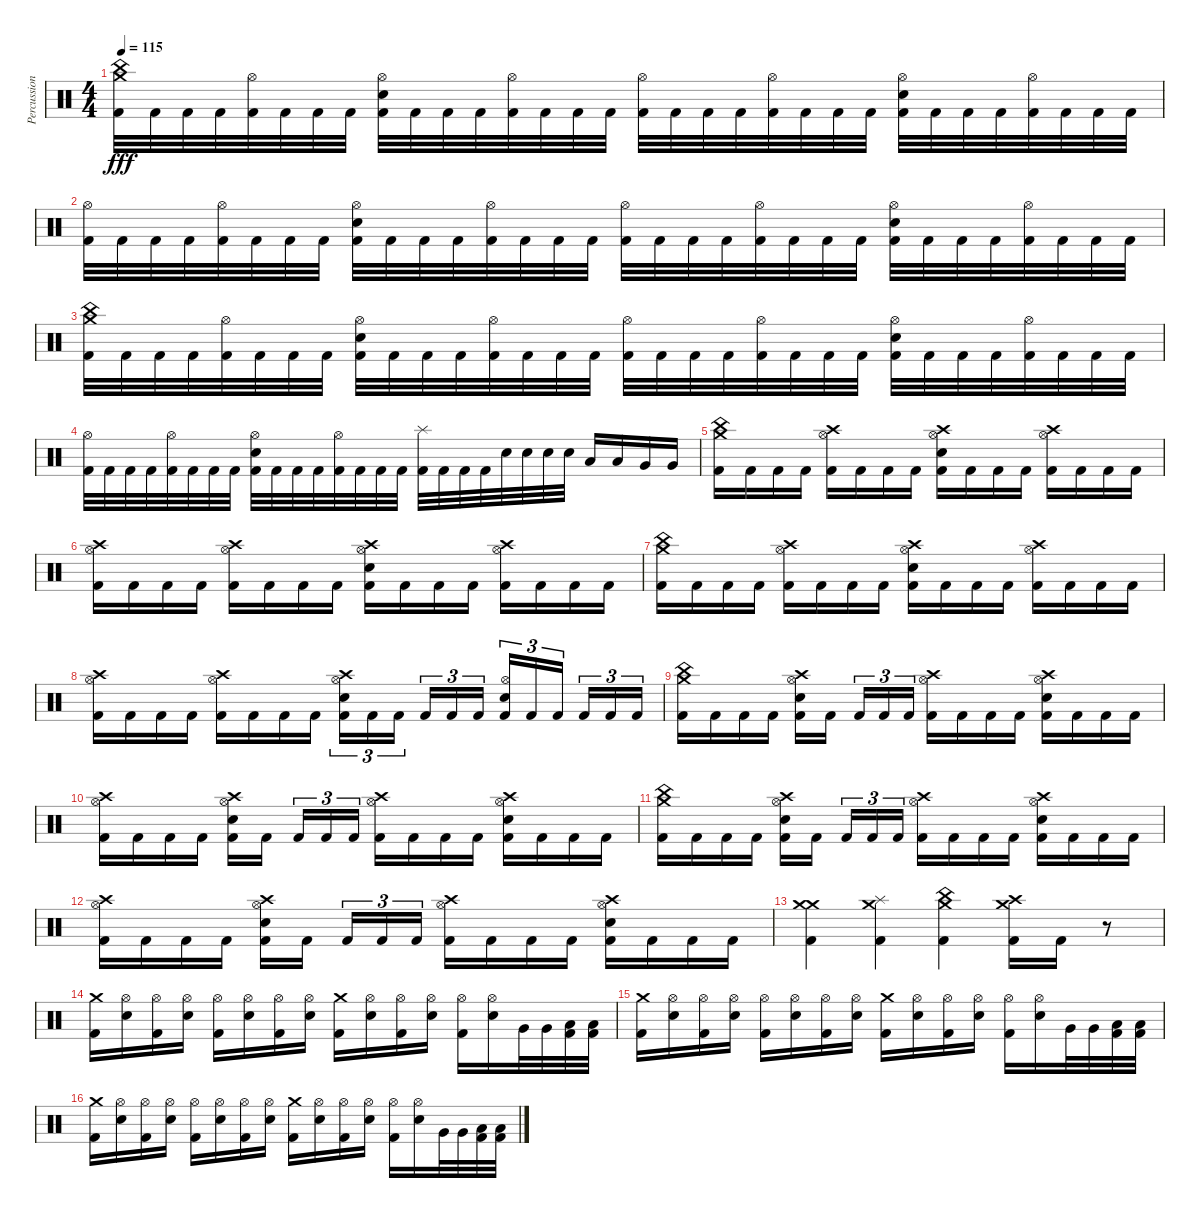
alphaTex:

\track ("Percussion" "Percussion") {instrument percussion}
\staff
\articulation defaults
\ts (4 4)
\tempo 115
\clef neutral
\ks c
("China (hit)" "Crash medium (hit)" "Kick (hit) 2").32{dy fff} "Kick (hit) 2".32 "Kick (hit) 2".32 "Kick (hit) 2".32 ("Hi-Hat (open)" "Kick (hit) 2").32 "Kick (hit) 2".32 "Kick (hit) 2".32 "Kick (hit) 2".32 ("Hi-Hat (open)" "Snare (hit) 2" "Kick (hit) 2").32 "Kick (hit) 2".32 "Kick (hit) 2".32 "Kick (hit) 2".32 ("Hi-Hat (open)" "Kick (hit) 2").32 "Kick (hit) 2".32 "Kick (hit) 2".32 "Kick (hit) 2".32 ("Hi-Hat (open)" "Kick (hit) 2").32 "Kick (hit) 2".32 "Kick (hit) 2".32 "Kick (hit) 2".32 ("Hi-Hat (open)" "Kick (hit) 2").32 "Kick (hit) 2".32 "Kick (hit) 2".32 "Kick (hit) 2".32 ("Hi-Hat (open)" "Snare (hit) 2" "Kick (hit) 2").32 "Kick (hit) 2".32 "Kick (hit) 2".32 "Kick (hit) 2".32 ("Hi-Hat (open)" "Kick (hit) 2").32 "Kick (hit) 2".32 "Kick (hit) 2".32 "Kick (hit) 2".32 |
("Hi-Hat (open)" "Kick (hit) 2").32 "Kick (hit) 2".32 "Kick (hit) 2".32 "Kick (hit) 2".32 ("Hi-Hat (open)" "Kick (hit) 2").32 "Kick (hit) 2".32 "Kick (hit) 2".32 "Kick (hit) 2".32 ("Hi-Hat (open)" "Snare (hit) 2" "Kick (hit) 2").32 "Kick (hit) 2".32 "Kick (hit) 2".32 "Kick (hit) 2".32 ("Hi-Hat (open)" "Kick (hit) 2").32 "Kick (hit) 2".32 "Kick (hit) 2".32 "Kick (hit) 2".32 ("Hi-Hat (open)" "Kick (hit) 2").32 "Kick (hit) 2".32 "Kick (hit) 2".32 "Kick (hit) 2".32 ("Hi-Hat (open)" "Kick (hit) 2").32 "Kick (hit) 2".32 "Kick (hit) 2".32 "Kick (hit) 2".32 ("Hi-Hat (open)" "Snare (hit) 2" "Kick (hit) 2").32 "Kick (hit) 2".32 "Kick (hit) 2".32 "Kick (hit) 2".32 ("Hi-Hat (open)" "Kick (hit) 2").32 "Kick (hit) 2".32 "Kick (hit) 2".32 "Kick (hit) 2".32 |
("China (hit)" "Crash medium (hit)" "Kick (hit) 2").32 "Kick (hit) 2".32 "Kick (hit) 2".32 "Kick (hit) 2".32 ("Hi-Hat (open)" "Kick (hit) 2").32 "Kick (hit) 2".32 "Kick (hit) 2".32 "Kick (hit) 2".32 ("Hi-Hat (open)" "Snare (hit) 2" "Kick (hit) 2").32 "Kick (hit) 2".32 "Kick (hit) 2".32 "Kick (hit) 2".32 ("Hi-Hat (open)" "Kick (hit) 2").32 "Kick (hit) 2".32 "Kick (hit) 2".32 "Kick (hit) 2".32 ("Hi-Hat (open)" "Kick (hit) 2").32 "Kick (hit) 2".32 "Kick (hit) 2".32 "Kick (hit) 2".32 ("Hi-Hat (open)" "Kick (hit) 2").32 "Kick (hit) 2".32 "Kick (hit) 2".32 "Kick (hit) 2".32 ("Hi-Hat (open)" "Snare (hit) 2" "Kick (hit) 2").32 "Kick (hit) 2".32 "Kick (hit) 2".32 "Kick (hit) 2".32 ("Hi-Hat (open)" "Kick (hit) 2").32 "Kick (hit) 2".32 "Kick (hit) 2".32 "Kick (hit) 2".32 |
("Hi-Hat (open)" "Kick (hit) 2").32 "Kick (hit) 2".32 "Kick (hit) 2".32 "Kick (hit) 2".32 ("Hi-Hat (open)" "Kick (hit) 2").32 "Kick (hit) 2".32 "Kick (hit) 2".32 "Kick (hit) 2".32 ("Hi-Hat (open)" "Snare (hit) 2" "Kick (hit) 2").32 "Kick (hit) 2".32 "Kick (hit) 2".32 "Kick (hit) 2".32 ("Hi-Hat (open)" "Kick (hit) 2").32 "Kick (hit) 2".32 "Kick (hit) 2".32 "Kick (hit) 2".32 ("Splash (hit)" "Kick (hit) 2").32 "Kick (hit) 2".32 "Kick (hit) 2".32 "Kick (hit) 2".32 "Snare (hit) 2".32 "Snare (hit) 2".32 "Snare (hit) 2".32 "Snare (hit) 2".32 "Low Tom (hit)".16 "Low Tom (hit)".16 "Very Low Tom (hit)".16 "Very Low Tom (hit)".16 |
("China (hit)" "Crash medium (hit)" "Kick (hit) 2").16 "Kick (hit) 2".16 "Kick (hit) 2".16 "Kick (hit) 2".16 ("Hi-Hat (open)" "Crash high (hit)" "Kick (hit) 2").16 "Kick (hit) 2".16 "Kick (hit) 2".16 "Kick (hit) 2".16 ("Hi-Hat (open)" "Crash high (hit)" "Snare (hit) 2" "Kick (hit) 2").16 "Kick (hit) 2".16 "Kick (hit) 2".16 "Kick (hit) 2".16 ("Hi-Hat (open)" "Crash high (hit)" "Kick (hit) 2").16 "Kick (hit) 2".16 "Kick (hit) 2".16 "Kick (hit) 2".16 |
("Hi-Hat (open)" "Crash high (hit)" "Kick (hit) 2").16 "Kick (hit) 2".16 "Kick (hit) 2".16 "Kick (hit) 2".16 ("Hi-Hat (open)" "Crash high (hit)" "Kick (hit) 2").16 "Kick (hit) 2".16 "Kick (hit) 2".16 "Kick (hit) 2".16 ("Hi-Hat (open)" "Crash high (hit)" "Snare (hit) 2" "Kick (hit) 2").16 "Kick (hit) 2".16 "Kick (hit) 2".16 "Kick (hit) 2".16 ("Hi-Hat (open)" "Crash high (hit)" "Kick (hit) 2").16 "Kick (hit) 2".16 "Kick (hit) 2".16 "Kick (hit) 2".16 |
("China (hit)" "Crash medium (hit)" "Kick (hit) 2").16 "Kick (hit) 2".16 "Kick (hit) 2".16 "Kick (hit) 2".16 ("Hi-Hat (open)" "Crash high (hit)" "Kick (hit) 2").16 "Kick (hit) 2".16 "Kick (hit) 2".16 "Kick (hit) 2".16 ("Hi-Hat (open)" "Crash high (hit)" "Snare (hit) 2" "Kick (hit) 2").16 "Kick (hit) 2".16 "Kick (hit) 2".16 "Kick (hit) 2".16 ("Hi-Hat (open)" "Crash high (hit)" "Kick (hit) 2").16 "Kick (hit) 2".16 "Kick (hit) 2".16 "Kick (hit) 2".16 |
("Hi-Hat (open)" "Crash high (hit)" "Kick (hit) 2").16 "Kick (hit) 2".16 "Kick (hit) 2".16 "Kick (hit) 2".16 ("Hi-Hat (open)" "Crash high (hit)" "Kick (hit) 2").16 "Kick (hit) 2".16 "Kick (hit) 2".16 "Kick (hit) 2".16 ("Hi-Hat (open)" "Crash high (hit)" "Snare (hit) 2" "Kick (hit) 2").16{tu (3 2)} "Kick (hit) 2".16{tu (3 2)} "Kick (hit) 2".16{tu (3 2) beam splitsecondary} "Kick (hit) 2".16{tu (3 2)} "Kick (hit) 2".16{tu (3 2)} "Kick (hit) 2".16{tu (3 2)} ("Hi-Hat (open)" "Snare (hit) 2" "Kick (hit) 2").16{tu (3 2)} "Kick (hit) 2".16{tu (3 2)} "Kick (hit) 2".16{tu (3 2) beam splitsecondary} "Kick (hit) 2".16{tu (3 2)} "Kick (hit) 2".16{tu (3 2)} "Kick (hit) 2".16{tu (3 2)} |
("China (hit)" "Crash medium (hit)" "Kick (hit) 2").16 "Kick (hit) 2".16 "Kick (hit) 2".16 "Kick (hit) 2".16 ("Hi-Hat (open)" "Crash high (hit)" "Snare (hit) 2" "Kick (hit) 2").16 "Kick (hit) 2".16{beam splitsecondary} "Kick (hit) 2".16{tu (3 2)} "Kick (hit) 2".16{tu (3 2)} "Kick (hit) 2".16{tu (3 2)} ("Hi-Hat (open)" "Crash high (hit)" "Kick (hit) 2").16 "Kick (hit) 2".16 "Kick (hit) 2".16 "Kick (hit) 2".16 ("Hi-Hat (open)" "Crash high (hit)" "Snare (hit) 2" "Kick (hit) 2").16 "Kick (hit) 2".16 "Kick (hit) 2".16 "Kick (hit) 2".16 |
("Hi-Hat (open)" "Crash high (hit)" "Kick (hit) 2").16 "Kick (hit) 2".16 "Kick (hit) 2".16 "Kick (hit) 2".16 ("Hi-Hat (open)" "Crash high (hit)" "Snare (hit) 2" "Kick (hit) 2").16 "Kick (hit) 2".16{beam splitsecondary} "Kick (hit) 2".16{tu (3 2)} "Kick (hit) 2".16{tu (3 2)} "Kick (hit) 2".16{tu (3 2)} ("Hi-Hat (open)" "Crash high (hit)" "Kick (hit) 2").16 "Kick (hit) 2".16 "Kick (hit) 2".16 "Kick (hit) 2".16 ("Hi-Hat (open)" "Crash high (hit)" "Snare (hit) 2" "Kick (hit) 2").16 "Kick (hit) 2".16 "Kick (hit) 2".16 "Kick (hit) 2".16 |
("China (hit)" "Crash medium (hit)" "Kick (hit) 2").16 "Kick (hit) 2".16 "Kick (hit) 2".16 "Kick (hit) 2".16 ("Hi-Hat (open)" "Crash high (hit)" "Snare (hit) 2" "Kick (hit) 2").16 "Kick (hit) 2".16{beam splitsecondary} "Kick (hit) 2".16{tu (3 2)} "Kick (hit) 2".16{tu (3 2)} "Kick (hit) 2".16{tu (3 2)} ("Hi-Hat (open)" "Crash high (hit)" "Kick (hit) 2").16 "Kick (hit) 2".16 "Kick (hit) 2".16 "Kick (hit) 2".16 ("Hi-Hat (open)" "Crash high (hit)" "Snare (hit) 2" "Kick (hit) 2").16 "Kick (hit) 2".16 "Kick (hit) 2".16 "Kick (hit) 2".16 |
("Hi-Hat (open)" "Crash high (hit)" "Kick (hit) 2").16 "Kick (hit) 2".16 "Kick (hit) 2".16 "Kick (hit) 2".16 ("Hi-Hat (open)" "Crash high (hit)" "Snare (hit) 2" "Kick (hit) 2").16 "Kick (hit) 2".16{beam splitsecondary} "Kick (hit) 2".16{tu (3 2)} "Kick (hit) 2".16{tu (3 2)} "Kick (hit) 2".16{tu (3 2)} ("Hi-Hat (open)" "Crash high (hit)" "Kick (hit) 2").16 "Kick (hit) 2".16 "Kick (hit) 2".16 "Kick (hit) 2".16 ("Hi-Hat (open)" "Crash high (hit)" "Snare (hit) 2" "Kick (hit) 2").16 "Kick (hit) 2".16 "Kick (hit) 2".16 "Kick (hit) 2".16 |
("Crash medium (hit)" "Crash medium (hit)" "Kick (hit) 2").4 ("Crash medium (hit)" "Splash (hit)" "Kick (hit) 2").4 ("Crash medium (hit)" "China (hit)" "Kick (hit) 2").4 ("Crash medium (hit)" "Crash high (hit)" "Kick (hit) 2").16 "Kick (hit) 2".16 r.8 |
("Crash medium (hit)" "Kick (hit) 2").16 ("Hi-Hat (open)" "Snare (hit) 2").16 ("Hi-Hat (open)" "Kick (hit) 2").16 ("Hi-Hat (open)" "Snare (hit) 2").16 ("Hi-Hat (open)" "Kick (hit) 2").16 ("Hi-Hat (open)" "Snare (hit) 2").16 ("Hi-Hat (open)" "Kick (hit) 2").16 ("Hi-Hat (open)" "Snare (hit) 2").16 ("Crash medium (hit)" "Kick (hit) 2").16 ("Hi-Hat (open)" "Snare (hit) 2").16 ("Hi-Hat (open)" "Kick (hit) 2").16 ("Hi-Hat (open)" "Snare (hit) 2").16 ("Hi-Hat (open)" "Kick (hit) 2").16 ("Hi-Hat (open)" "Snare (hit) 2").16 "Very Low Tom (hit)".32 "Very Low Tom (hit)".32 ("Low Floor Tom (hit)" "Kick (hit) 2").32 ("Low Floor Tom (hit)" "Kick (hit) 2").32 |
("Crash medium (hit)" "Kick (hit) 2").16 ("Hi-Hat (open)" "Snare (hit) 2").16 ("Hi-Hat (open)" "Kick (hit) 2").16 ("Hi-Hat (open)" "Snare (hit) 2").16 ("Hi-Hat (open)" "Kick (hit) 2").16 ("Hi-Hat (open)" "Snare (hit) 2").16 ("Hi-Hat (open)" "Kick (hit) 2").16 ("Hi-Hat (open)" "Snare (hit) 2").16 ("Crash medium (hit)" "Kick (hit) 2").16 ("Hi-Hat (open)" "Snare (hit) 2").16 ("Hi-Hat (open)" "Kick (hit) 2").16 ("Hi-Hat (open)" "Snare (hit) 2").16 ("Hi-Hat (open)" "Kick (hit) 2").16 ("Hi-Hat (open)" "Snare (hit) 2").16 "Very Low Tom (hit)".32 "Very Low Tom (hit)".32 ("Low Floor Tom (hit)" "Kick (hit) 2").32 ("Low Floor Tom (hit)" "Kick (hit) 2").32 |
("Crash medium (hit)" "Kick (hit) 2").16 ("Hi-Hat (open)" "Snare (hit) 2").16 ("Hi-Hat (open)" "Kick (hit) 2").16 ("Hi-Hat (open)" "Snare (hit) 2").16 ("Hi-Hat (open)" "Kick (hit) 2").16 ("Hi-Hat (open)" "Snare (hit) 2").16 ("Hi-Hat (open)" "Kick (hit) 2").16 ("Hi-Hat (open)" "Snare (hit) 2").16 ("Crash medium (hit)" "Kick (hit) 2").16 ("Hi-Hat (open)" "Snare (hit) 2").16 ("Hi-Hat (open)" "Kick (hit) 2").16 ("Hi-Hat (open)" "Snare (hit) 2").16 ("Hi-Hat (open)" "Kick (hit) 2").16 ("Hi-Hat (open)" "Snare (hit) 2").16 "Very Low Tom (hit)".32 "Very Low Tom (hit)".32 ("Low Floor Tom (hit)" "Kick (hit) 2").32 ("Low Floor Tom (hit)" "Kick (hit) 2").32
